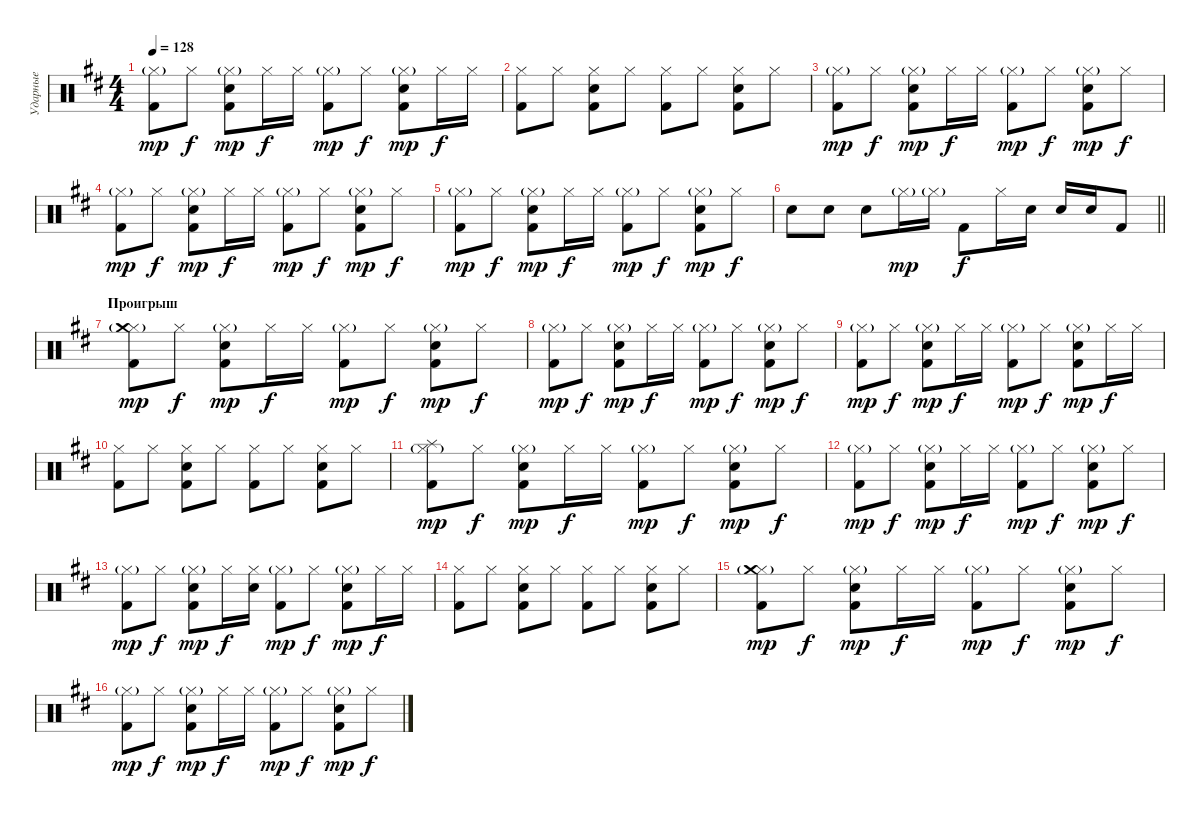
\track ("Ударные" "Ударные") {instrument percussion}
\staff {score}
\articulation defaults
\ts (4 4)
\tempo 128
\clef neutral
\ks bminor
("Hi-Hat (closed)"{g} "Kick (hit) 2").8{dy mp} "Hi-Hat (closed)".8{dy f} ("Hi-Hat (closed)"{g} "Kick (hit) 2" "Snare (hit) 2").8{dy mp} "Hi-Hat (closed)".16{dy f} "Hi-Hat (closed)".16 ("Hi-Hat (closed)"{g} "Kick (hit) 2").8{dy mp} "Hi-Hat (closed)".8{dy f} ("Hi-Hat (closed)"{g} "Kick (hit) 2" "Snare (hit) 2").8{dy mp} "Hi-Hat (closed)".16{dy f} "Hi-Hat (closed)".16 |
("Hi-Hat (closed)" "Kick (hit) 2").8 "Hi-Hat (closed)".8 ("Hi-Hat (closed)" "Kick (hit) 2" "Snare (hit) 2").8 "Hi-Hat (closed)".8 ("Hi-Hat (closed)" "Kick (hit) 2").8 "Hi-Hat (closed)".8 ("Hi-Hat (closed)" "Kick (hit) 2" "Snare (hit) 2").8 "Hi-Hat (closed)".8 |
("Hi-Hat (closed)"{g} "Kick (hit) 2").8{dy mp} "Hi-Hat (closed)".8{dy f} ("Hi-Hat (closed)"{g} "Kick (hit) 2" "Snare (hit) 2").8{dy mp} "Hi-Hat (closed)".16{dy f} "Hi-Hat (closed)".16 ("Hi-Hat (closed)"{g} "Kick (hit) 2").8{dy mp} "Hi-Hat (closed)".8{dy f} ("Hi-Hat (closed)"{g} "Kick (hit) 2" "Snare (hit) 2").8{dy mp} "Hi-Hat (closed)".8{dy f} |
("Hi-Hat (closed)"{g} "Kick (hit) 2").8{dy mp} "Hi-Hat (closed)".8{dy f} ("Hi-Hat (closed)"{g} "Kick (hit) 2" "Snare (hit) 2").8{dy mp} "Hi-Hat (closed)".16{dy f} "Hi-Hat (closed)".16 ("Hi-Hat (closed)"{g} "Kick (hit) 2").8{dy mp} "Hi-Hat (closed)".8{dy f} ("Hi-Hat (closed)"{g} "Kick (hit) 2" "Snare (hit) 2").8{dy mp} "Hi-Hat (closed)".8{dy f} |
("Hi-Hat (closed)"{g} "Kick (hit) 2").8{dy mp} "Hi-Hat (closed)".8{dy f} ("Hi-Hat (closed)"{g} "Kick (hit) 2" "Snare (hit) 2").8{dy mp} "Hi-Hat (closed)".16{dy f} "Hi-Hat (closed)".16 ("Hi-Hat (closed)"{g} "Kick (hit) 2").8{dy mp} "Hi-Hat (closed)".8{dy f} ("Hi-Hat (closed)"{g} "Kick (hit) 2" "Snare (hit) 2").8{dy mp} "Hi-Hat (closed)".8{dy f} |
\barLineRight lightlight "Snare (hit) 2".8 "Snare (hit) 2".8 "Snare (hit) 2".8 "Hi-Hat (closed)"{g}.16{dy mp} "Hi-Hat (closed)"{g}.16 "Kick (hit) 2".8{dy f} "Hi-Hat (closed)".16 "Snare (hit) 2".16 "Snare (hit) 2".16 "Snare (hit) 2".16 "Kick (hit) 2".8
|
\section ("" "Проигрыш")
("Hi-Hat (closed)"{g} "Crash medium (hit)" "Kick (hit) 2").8{dy mp} "Hi-Hat (closed)".8{dy f} ("Hi-Hat (closed)"{g} "Kick (hit) 2" "Snare (hit) 2").8{dy mp} "Hi-Hat (closed)".16{dy f} "Hi-Hat (closed)".16 ("Hi-Hat (closed)"{g} "Kick (hit) 2").8{dy mp} "Hi-Hat (closed)".8{dy f} ("Hi-Hat (closed)"{g} "Kick (hit) 2" "Snare (hit) 2").8{dy mp} "Hi-Hat (closed)".8{dy f} |
("Hi-Hat (closed)"{g} "Kick (hit) 2").8{dy mp} "Hi-Hat (closed)".8{dy f} ("Hi-Hat (closed)"{g} "Kick (hit) 2" "Snare (hit) 2").8{dy mp} "Hi-Hat (closed)".16{dy f} "Hi-Hat (closed)".16 ("Hi-Hat (closed)"{g} "Kick (hit) 2").8{dy mp} "Hi-Hat (closed)".8{dy f} ("Hi-Hat (closed)"{g} "Kick (hit) 2" "Snare (hit) 2").8{dy mp} "Hi-Hat (closed)".8{dy f} |
("Hi-Hat (closed)"{g} "Kick (hit) 2").8{dy mp} "Hi-Hat (closed)".8{dy f} ("Hi-Hat (closed)"{g} "Kick (hit) 2" "Snare (hit) 2").8{dy mp} "Hi-Hat (closed)".16{dy f} "Hi-Hat (closed)".16 ("Hi-Hat (closed)"{g} "Kick (hit) 2").8{dy mp} "Hi-Hat (closed)".8{dy f} ("Hi-Hat (closed)"{g} "Kick (hit) 2" "Snare (hit) 2").8{dy mp} "Hi-Hat (closed)".16{dy f} "Hi-Hat (closed)".16 |
("Hi-Hat (closed)" "Kick (hit) 2").8 "Hi-Hat (closed)".8 ("Hi-Hat (closed)" "Kick (hit) 2" "Snare (hit) 2").8 "Hi-Hat (closed)".8 ("Hi-Hat (closed)" "Kick (hit) 2").8 "Hi-Hat (closed)".8 ("Hi-Hat (closed)" "Kick (hit) 2" "Snare (hit) 2").8 "Hi-Hat (closed)".8 |
("Hi-Hat (closed)"{g} "Splash (hit)" "Kick (hit) 2").8{dy mp} "Hi-Hat (closed)".8{dy f} ("Hi-Hat (closed)"{g} "Kick (hit) 2" "Snare (hit) 2").8{dy mp} "Hi-Hat (closed)".16{dy f} "Hi-Hat (closed)".16 ("Hi-Hat (closed)"{g} "Kick (hit) 2").8{dy mp} "Hi-Hat (closed)".8{dy f} ("Hi-Hat (closed)"{g} "Kick (hit) 2" "Snare (hit) 2").8{dy mp} "Hi-Hat (closed)".8{dy f} |
("Hi-Hat (closed)"{g} "Kick (hit) 2").8{dy mp} "Hi-Hat (closed)".8{dy f} ("Hi-Hat (closed)"{g} "Kick (hit) 2" "Snare (hit) 2").8{dy mp} "Hi-Hat (closed)".16{dy f} "Hi-Hat (closed)".16 ("Hi-Hat (closed)"{g} "Kick (hit) 2").8{dy mp} "Hi-Hat (closed)".8{dy f} ("Hi-Hat (closed)"{g} "Kick (hit) 2" "Snare (hit) 2").8{dy mp} "Hi-Hat (closed)".8{dy f} |
("Hi-Hat (closed)"{g} "Kick (hit) 2").8{dy mp} "Hi-Hat (closed)".8{dy f} ("Hi-Hat (closed)"{g} "Kick (hit) 2" "Snare (hit) 2").8{dy mp} "Hi-Hat (closed)".16{dy f} ("Hi-Hat (closed)" "Snare (hit) 2").16 ("Hi-Hat (closed)"{g} "Kick (hit) 2").8{dy mp} "Hi-Hat (closed)".8{dy f} ("Hi-Hat (closed)"{g} "Kick (hit) 2" "Snare (hit) 2").8{dy mp} "Hi-Hat (closed)".16{dy f} "Hi-Hat (closed)".16 |
("Hi-Hat (closed)" "Kick (hit) 2").8 "Hi-Hat (closed)".8 ("Hi-Hat (closed)" "Kick (hit) 2" "Snare (hit) 2").8 "Hi-Hat (closed)".8 ("Hi-Hat (closed)" "Kick (hit) 2").8 "Hi-Hat (closed)".8 ("Hi-Hat (closed)" "Kick (hit) 2" "Snare (hit) 2").8 "Hi-Hat (closed)".8 |
("Hi-Hat (closed)"{g} "Crash medium (hit)" "Kick (hit) 2").8{dy mp} "Hi-Hat (closed)".8{dy f} ("Hi-Hat (closed)"{g} "Kick (hit) 2" "Snare (hit) 2").8{dy mp} "Hi-Hat (closed)".16{dy f} "Hi-Hat (closed)".16 ("Hi-Hat (closed)"{g} "Kick (hit) 2").8{dy mp} "Hi-Hat (closed)".8{dy f} ("Hi-Hat (closed)"{g} "Kick (hit) 2" "Snare (hit) 2").8{dy mp} "Hi-Hat (closed)".8{dy f} |
("Hi-Hat (closed)"{g} "Kick (hit) 2").8{dy mp} "Hi-Hat (closed)".8{dy f} ("Hi-Hat (closed)"{g} "Kick (hit) 2" "Snare (hit) 2").8{dy mp} "Hi-Hat (closed)".16{dy f} "Hi-Hat (closed)".16 ("Hi-Hat (closed)"{g} "Kick (hit) 2").8{dy mp} "Hi-Hat (closed)".8{dy f} ("Hi-Hat (closed)"{g} "Kick (hit) 2" "Snare (hit) 2").8{dy mp} "Hi-Hat (closed)".8{dy f}
